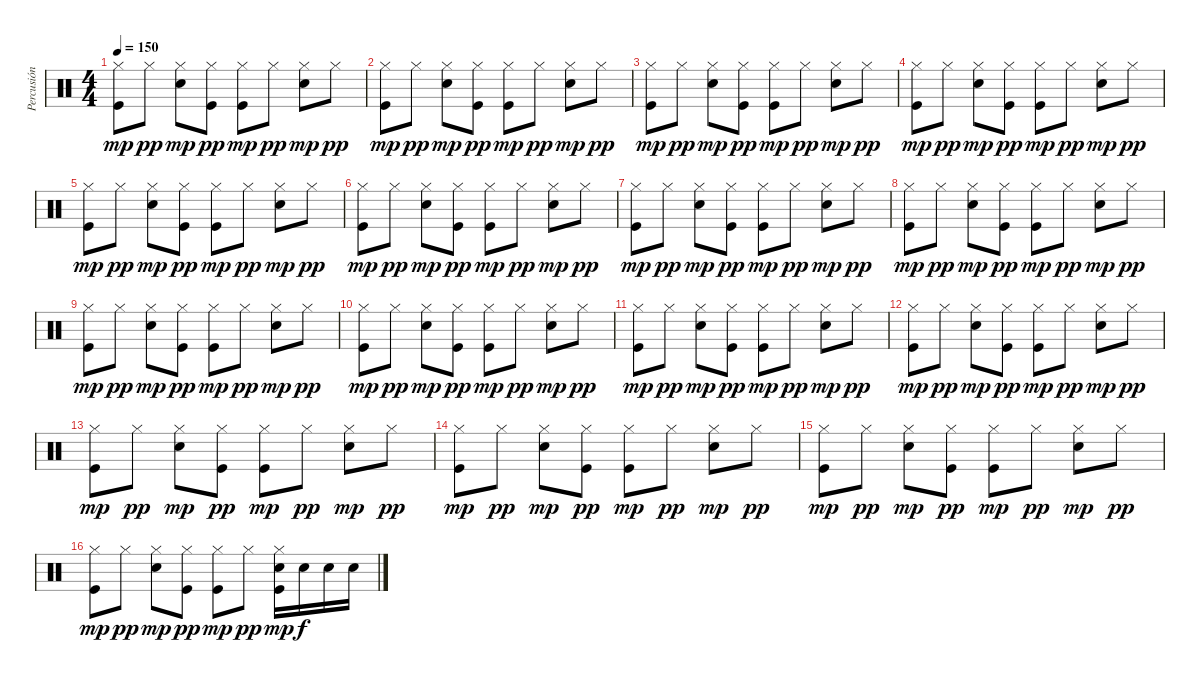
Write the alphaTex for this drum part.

\track ("Percusión" "Percusión") {instrument percussion}
\staff {score}
\articulation defaults
\ts (4 4)
\tempo 150
\clef neutral
\ks c
("Hi-Hat (closed)" "Kick (hit)").8{dy mp} "Hi-Hat (closed)".8{dy pp} ("Hi-Hat (closed)" "Snare (hit) 2").8{dy mp} ("Hi-Hat (closed)" "Kick (hit)").8{dy pp} ("Hi-Hat (closed)" "Kick (hit)").8{dy mp} "Hi-Hat (closed)".8{dy pp} ("Hi-Hat (closed)" "Snare (hit) 2").8{dy mp} "Hi-Hat (closed)".8{dy pp} |
("Hi-Hat (closed)" "Kick (hit)").8{dy mp} "Hi-Hat (closed)".8{dy pp} ("Hi-Hat (closed)" "Snare (hit) 2").8{dy mp} ("Hi-Hat (closed)" "Kick (hit)").8{dy pp} ("Hi-Hat (closed)" "Kick (hit)").8{dy mp} "Hi-Hat (closed)".8{dy pp} ("Hi-Hat (closed)" "Snare (hit) 2").8{dy mp} "Hi-Hat (closed)".8{dy pp} |
("Hi-Hat (closed)" "Kick (hit)").8{dy mp} "Hi-Hat (closed)".8{dy pp} ("Hi-Hat (closed)" "Snare (hit) 2").8{dy mp} ("Hi-Hat (closed)" "Kick (hit)").8{dy pp} ("Hi-Hat (closed)" "Kick (hit)").8{dy mp} "Hi-Hat (closed)".8{dy pp} ("Hi-Hat (closed)" "Snare (hit) 2").8{dy mp} "Hi-Hat (closed)".8{dy pp} |
("Hi-Hat (closed)" "Kick (hit)").8{dy mp} "Hi-Hat (closed)".8{dy pp} ("Hi-Hat (closed)" "Snare (hit) 2").8{dy mp} ("Hi-Hat (closed)" "Kick (hit)").8{dy pp} ("Hi-Hat (closed)" "Kick (hit)").8{dy mp} "Hi-Hat (closed)".8{dy pp} ("Hi-Hat (closed)" "Snare (hit) 2").8{dy mp} "Hi-Hat (closed)".8{dy pp} |
("Hi-Hat (closed)" "Kick (hit)").8{dy mp} "Hi-Hat (closed)".8{dy pp} ("Hi-Hat (closed)" "Snare (hit) 2").8{dy mp} ("Hi-Hat (closed)" "Kick (hit)").8{dy pp} ("Hi-Hat (closed)" "Kick (hit)").8{dy mp} "Hi-Hat (closed)".8{dy pp} ("Hi-Hat (closed)" "Snare (hit) 2").8{dy mp} "Hi-Hat (closed)".8{dy pp} |
("Hi-Hat (closed)" "Kick (hit)").8{dy mp} "Hi-Hat (closed)".8{dy pp} ("Hi-Hat (closed)" "Snare (hit) 2").8{dy mp} ("Hi-Hat (closed)" "Kick (hit)").8{dy pp} ("Hi-Hat (closed)" "Kick (hit)").8{dy mp} "Hi-Hat (closed)".8{dy pp} ("Hi-Hat (closed)" "Snare (hit) 2").8{dy mp} "Hi-Hat (closed)".8{dy pp} |
("Hi-Hat (closed)" "Kick (hit)").8{dy mp} "Hi-Hat (closed)".8{dy pp} ("Hi-Hat (closed)" "Snare (hit) 2").8{dy mp} ("Hi-Hat (closed)" "Kick (hit)").8{dy pp} ("Hi-Hat (closed)" "Kick (hit)").8{dy mp} "Hi-Hat (closed)".8{dy pp} ("Hi-Hat (closed)" "Snare (hit) 2").8{dy mp} "Hi-Hat (closed)".8{dy pp} |
("Hi-Hat (closed)" "Kick (hit)").8{dy mp} "Hi-Hat (closed)".8{dy pp} ("Hi-Hat (closed)" "Snare (hit) 2").8{dy mp} ("Hi-Hat (closed)" "Kick (hit)").8{dy pp} ("Hi-Hat (closed)" "Kick (hit)").8{dy mp} "Hi-Hat (closed)".8{dy pp} ("Hi-Hat (closed)" "Snare (hit) 2").8{dy mp} "Hi-Hat (closed)".8{dy pp} |
("Hi-Hat (closed)" "Kick (hit)").8{dy mp} "Hi-Hat (closed)".8{dy pp} ("Hi-Hat (closed)" "Snare (hit) 2").8{dy mp} ("Hi-Hat (closed)" "Kick (hit)").8{dy pp} ("Hi-Hat (closed)" "Kick (hit)").8{dy mp} "Hi-Hat (closed)".8{dy pp} ("Hi-Hat (closed)" "Snare (hit) 2").8{dy mp} "Hi-Hat (closed)".8{dy pp} |
("Hi-Hat (closed)" "Kick (hit)").8{dy mp} "Hi-Hat (closed)".8{dy pp} ("Hi-Hat (closed)" "Snare (hit) 2").8{dy mp} ("Hi-Hat (closed)" "Kick (hit)").8{dy pp} ("Hi-Hat (closed)" "Kick (hit)").8{dy mp} "Hi-Hat (closed)".8{dy pp} ("Hi-Hat (closed)" "Snare (hit) 2").8{dy mp} "Hi-Hat (closed)".8{dy pp} |
("Hi-Hat (closed)" "Kick (hit)").8{dy mp} "Hi-Hat (closed)".8{dy pp} ("Hi-Hat (closed)" "Snare (hit) 2").8{dy mp} ("Hi-Hat (closed)" "Kick (hit)").8{dy pp} ("Hi-Hat (closed)" "Kick (hit)").8{dy mp} "Hi-Hat (closed)".8{dy pp} ("Hi-Hat (closed)" "Snare (hit) 2").8{dy mp} "Hi-Hat (closed)".8{dy pp} |
("Hi-Hat (closed)" "Kick (hit)").8{dy mp} "Hi-Hat (closed)".8{dy pp} ("Hi-Hat (closed)" "Snare (hit) 2").8{dy mp} ("Hi-Hat (closed)" "Kick (hit)").8{dy pp} ("Hi-Hat (closed)" "Kick (hit)").8{dy mp} "Hi-Hat (closed)".8{dy pp} ("Hi-Hat (closed)" "Snare (hit) 2").8{dy mp} "Hi-Hat (closed)".8{dy pp} |
("Hi-Hat (closed)" "Kick (hit)").8{dy mp} "Hi-Hat (closed)".8{dy pp} ("Hi-Hat (closed)" "Snare (hit) 2").8{dy mp} ("Hi-Hat (closed)" "Kick (hit)").8{dy pp} ("Hi-Hat (closed)" "Kick (hit)").8{dy mp} "Hi-Hat (closed)".8{dy pp} ("Hi-Hat (closed)" "Snare (hit) 2").8{dy mp} "Hi-Hat (closed)".8{dy pp} |
("Hi-Hat (closed)" "Kick (hit)").8{dy mp} "Hi-Hat (closed)".8{dy pp} ("Hi-Hat (closed)" "Snare (hit) 2").8{dy mp} ("Hi-Hat (closed)" "Kick (hit)").8{dy pp} ("Hi-Hat (closed)" "Kick (hit)").8{dy mp} "Hi-Hat (closed)".8{dy pp} ("Hi-Hat (closed)" "Snare (hit) 2").8{dy mp} "Hi-Hat (closed)".8{dy pp} |
("Hi-Hat (closed)" "Kick (hit)").8{dy mp} "Hi-Hat (closed)".8{dy pp} ("Hi-Hat (closed)" "Snare (hit) 2").8{dy mp} ("Hi-Hat (closed)" "Kick (hit)").8{dy pp} ("Hi-Hat (closed)" "Kick (hit)").8{dy mp} "Hi-Hat (closed)".8{dy pp} ("Hi-Hat (closed)" "Snare (hit) 2").8{dy mp} "Hi-Hat (closed)".8{dy pp} |
("Hi-Hat (closed)" "Kick (hit)").8{dy mp} "Hi-Hat (closed)".8{dy pp} ("Hi-Hat (closed)" "Snare (hit) 2").8{dy mp} ("Hi-Hat (closed)" "Kick (hit)").8{dy pp} ("Hi-Hat (closed)" "Kick (hit)").8{dy mp} "Hi-Hat (closed)".8{dy pp} ("Hi-Hat (closed)" "Snare (hit) 2" "Kick (hit)").16{dy mp} "Snare (hit) 2".16{dy f} "Snare (hit) 2".16 "Snare (hit) 2".16
